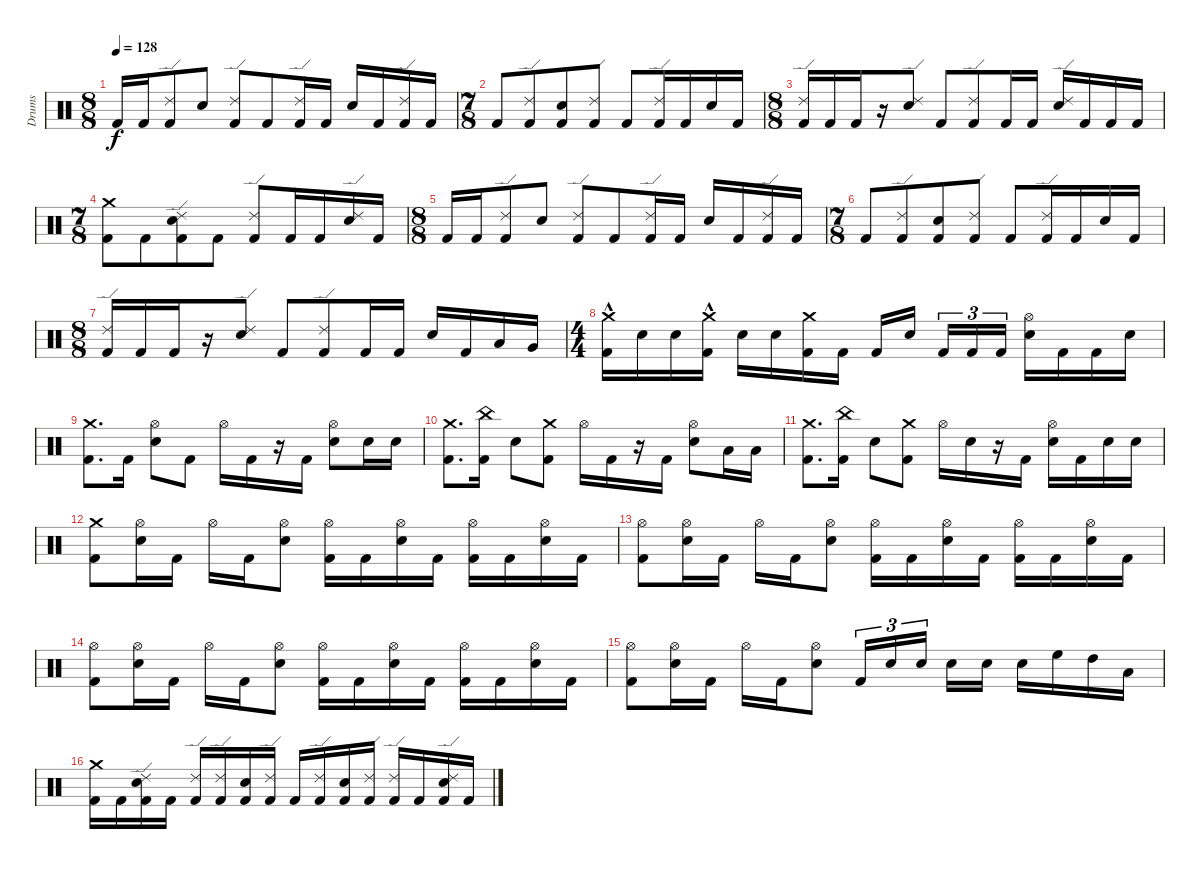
\track ("Drums" "Drums") {instrument percussion}
\staff {score}
\articulation defaults
\ts (8 8)
\tempo 128
\clef neutral
\ks c "Kick (hit) 2".16{dy f} "Kick (hit) 2".16
("Ride (edge) 2" "Kick (hit) 2").8 "Electric Snare (hit)".8 ("Ride (edge) 2" "Kick (hit) 2").8 "Kick (hit) 2".8 ("Ride (edge) 2" "Kick (hit) 2").16 "Kick (hit) 2".16 "Electric Snare (hit)".16 "Kick (hit) 2".16 ("Ride (edge) 2" "Kick (hit) 2").16 "Kick (hit) 2".16 |
\ts (7 8)
"Kick (hit) 2".8 ("Ride (edge) 2" "Kick (hit) 2").8 ("Electric Snare (hit)" "Kick (hit) 2").8 ("Ride (edge) 2" "Kick (hit) 2").8 "Kick (hit) 2".8 ("Ride (edge) 2" "Kick (hit) 2").16 "Kick (hit) 2".16 "Electric Snare (hit)".16 "Kick (hit) 2".16 |
\ts (8 8)
("Ride (edge) 2" "Kick (hit) 2").16 "Kick (hit) 2".16 "Kick (hit) 2".16 r.16 ("Ride (edge) 2" "Electric Snare (hit)").8 "Kick (hit) 2".8 ("Ride (edge) 2" "Kick (hit) 2").8 "Kick (hit) 2".16 "Kick (hit) 2".16 ("Ride (edge) 2" "Electric Snare (hit)").16 "Kick (hit) 2".16 "Kick (hit) 2".16 "Kick (hit) 2".16 |
\ts (7 8)
("Kick (hit) 2" "Crash medium (hit)").8 "Kick (hit) 2".8 ("Electric Snare (hit)" "Kick (hit) 2" "Ride (edge) 2").8 "Kick (hit) 2".8 ("Kick (hit) 2" "Ride (edge) 2").8 "Kick (hit) 2".16 "Kick (hit) 2".16 ("Electric Snare (hit)" "Ride (edge) 2").16 "Kick (hit) 2".16 |
\ts (8 8)
"Kick (hit) 2".16 "Kick (hit) 2".16 ("Ride (edge) 2" "Kick (hit) 2").8 "Electric Snare (hit)".8 ("Ride (edge) 2" "Kick (hit) 2").8 "Kick (hit) 2".8 ("Ride (edge) 2" "Kick (hit) 2").16 "Kick (hit) 2".16 "Electric Snare (hit)".16 "Kick (hit) 2".16 ("Ride (edge) 2" "Kick (hit) 2").16 "Kick (hit) 2".16 |
\ts (7 8)
"Kick (hit) 2".8 ("Ride (edge) 2" "Kick (hit) 2").8 ("Electric Snare (hit)" "Kick (hit) 2").8 ("Ride (edge) 2" "Kick (hit) 2").8 "Kick (hit) 2".8 ("Ride (edge) 2" "Kick (hit) 2").16 "Kick (hit) 2".16 "Electric Snare (hit)".16 "Kick (hit) 2".16 |
\ts (8 8)
("Ride (edge) 2" "Kick (hit) 2").16 "Kick (hit) 2".16 "Kick (hit) 2".16 r.16 ("Ride (edge) 2" "Electric Snare (hit)").8 "Kick (hit) 2".8 ("Ride (edge) 2" "Kick (hit) 2").8 "Kick (hit) 2".16 "Kick (hit) 2".16 "Electric Snare (hit)".16 "Kick (hit) 2".16 "Low Tom (hit)".16 "Very Low Tom (hit)".16 |
\ts (4 4)
("Crash medium (hit)"{hac} "Kick (hit) 2"{hac}).16 "Electric Snare (hit)".16 "Electric Snare (hit)".16 ("Crash medium (hit)"{hac} "Kick (hit) 2"{hac}).16 "Electric Snare (hit)".16 "Electric Snare (hit)".16 ("Crash medium (hit)" "Kick (hit) 2").16 "Kick (hit) 2".16 "Kick (hit) 2".16 "Electric Snare (hit)".16 "Kick (hit) 2".16{tu (3 2)} "Kick (hit) 2".16{tu (3 2)} "Kick (hit) 2".16{tu (3 2)} ("Hi-Hat (open)" "Electric Snare (hit)").16 "Kick (hit) 2".16 "Kick (hit) 2".16 "Electric Snare (hit)".16 |
("Crash medium (hit)" "Kick (hit) 2").8{d} "Kick (hit) 2".16 ("Hi-Hat (open)" "Electric Snare (hit)").8 "Kick (hit) 2".8 "Hi-Hat (open)".16 "Kick (hit) 2".16 r.16 "Kick (hit) 2".16 ("Hi-Hat (open)" "Electric Snare (hit)").8 "Electric Snare (hit)".16 "Electric Snare (hit)".16 |
("Crash medium (hit)" "Kick (hit) 2").8{d} ("China (hit)" "Kick (hit) 2").16 "Electric Snare (hit)".8 ("Crash medium (hit)" "Kick (hit) 2").8 "Hi-Hat (open)".16 "Kick (hit) 2".16 r.16 "Kick (hit) 2".16 ("Hi-Hat (open)" "Electric Snare (hit)").8 "Low Tom (hit)".16 "Low Tom (hit)".16 |
("Crash medium (hit)" "Kick (hit) 2").8{d} ("China (hit)" "Kick (hit) 2").16 "Electric Snare (hit)".8 ("Crash medium (hit)" "Kick (hit) 2").8 "Hi-Hat (open)".16 "Electric Snare (hit)".16 r.16 "Kick (hit) 2".16 ("Hi-Hat (open)" "Electric Snare (hit)").16 "Kick (hit) 2".16 "Electric Snare (hit)".16 "Electric Snare (hit)".16 |
("Crash medium (hit)" "Kick (hit) 2").8 ("Hi-Hat (open)" "Electric Snare (hit)").16 "Kick (hit) 2".16 "Hi-Hat (open)".16 "Kick (hit) 2".16 ("Hi-Hat (open)" "Electric Snare (hit)").8 ("Hi-Hat (open)" "Kick (hit) 2").16 "Kick (hit) 2".16 ("Hi-Hat (open)" "Electric Snare (hit)").16 "Kick (hit) 2".16 ("Hi-Hat (open)" "Kick (hit) 2").16 "Kick (hit) 2".16 ("Hi-Hat (open)" "Electric Snare (hit)").16 "Kick (hit) 2".16 |
("Hi-Hat (open)" "Kick (hit) 2").8 ("Hi-Hat (open)" "Electric Snare (hit)").16 "Kick (hit) 2".16 "Hi-Hat (open)".16 "Kick (hit) 2".16 ("Hi-Hat (open)" "Electric Snare (hit)").8 ("Hi-Hat (open)" "Kick (hit) 2").16 "Kick (hit) 2".16 ("Hi-Hat (open)" "Electric Snare (hit)").16 "Kick (hit) 2".16 ("Hi-Hat (open)" "Kick (hit) 2").16 "Kick (hit) 2".16 ("Hi-Hat (open)" "Electric Snare (hit)").16 "Kick (hit) 2".16 |
("Hi-Hat (open)" "Kick (hit) 2").8 ("Hi-Hat (open)" "Electric Snare (hit)").16 "Kick (hit) 2".16 "Hi-Hat (open)".16 "Kick (hit) 2".16 ("Hi-Hat (open)" "Electric Snare (hit)").8 ("Hi-Hat (open)" "Kick (hit) 2").16 "Kick (hit) 2".16 ("Hi-Hat (open)" "Electric Snare (hit)").16 "Kick (hit) 2".16 ("Hi-Hat (open)" "Kick (hit) 2").16 "Kick (hit) 2".16 ("Hi-Hat (open)" "Electric Snare (hit)").16 "Kick (hit) 2".16 |
("Hi-Hat (open)" "Kick (hit) 2").8 ("Hi-Hat (open)" "Electric Snare (hit)").16 "Kick (hit) 2".16 "Hi-Hat (open)".16 "Kick (hit) 2".16 ("Hi-Hat (open)" "Electric Snare (hit)").8 "Kick (hit) 2".16{tu (3 2)} "Electric Snare (hit)".16{tu (3 2)} "Electric Snare (hit)".16{tu (3 2)} "Electric Snare (hit)".16 "Electric Snare (hit)".16 "Electric Snare (hit)".16 "High Floor Tom (hit)".16 "High Tom (hit)".16 "Low Tom (hit)".16 |
("Kick (hit) 2" "Crash medium (hit)").16 "Kick (hit) 2".16 ("Electric Snare (hit)" "Kick (hit) 2" "Ride (edge) 2").16 "Kick (hit) 2".16 ("Kick (hit) 2" "Ride (edge) 2").16 ("Kick (hit) 2" "Ride (edge) 2").16 ("Electric Snare (hit)" "Kick (hit) 2").16 ("Kick (hit) 2" "Ride (edge) 2").16 "Kick (hit) 2".16 ("Kick (hit) 2" "Ride (edge) 2").16 ("Electric Snare (hit)" "Kick (hit) 2").16 ("Kick (hit) 2" "Ride (edge) 2").16 ("Kick (hit) 2" "Ride (edge) 2").16 "Kick (hit) 2".16 ("Electric Snare (hit)" "Kick (hit) 2" "Ride (edge) 2").16 "Kick (hit) 2".16
